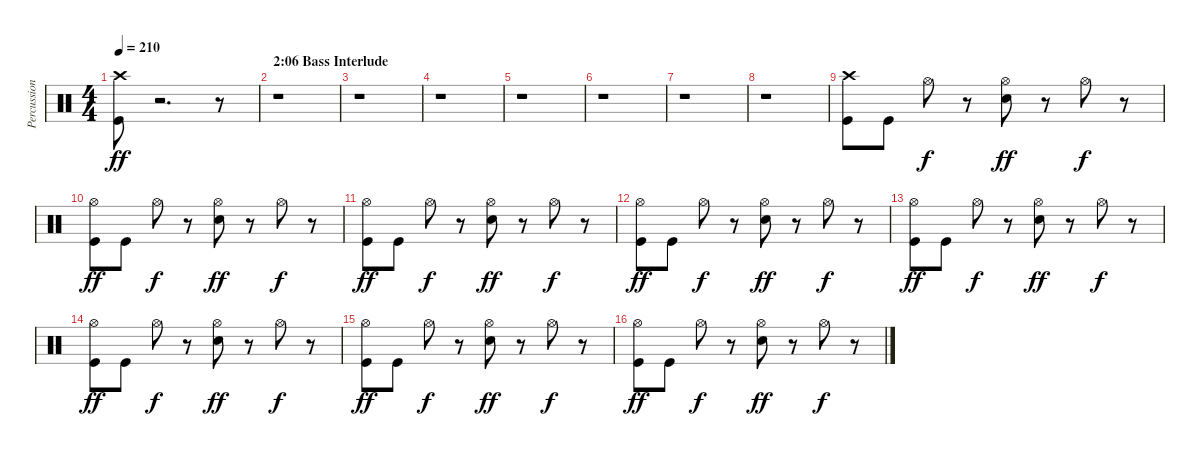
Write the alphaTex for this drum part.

\track ("Percussion" "Percussion") {instrument percussion}
\staff {score}
\articulation defaults
\ts (4 4)
\tempo 210
\clef neutral
\ks c
("Crash high (hit)" "Kick (hit)").8{dy ff} r.2{d} r.8 |
\section ("" "2:06 Bass Interlude")
r.1 |
r.1 |
r.1 |
r.1 |
r.1 |
r.1 |
r.1 |
("Crash high (hit)" "Kick (hit)").8 "Kick (hit)".8 "Hi-Hat (open)".8{dy f} r.8 ("Hi-Hat (open)" "Snare (hit) 2").8{dy ff} r.8 "Hi-Hat (open)".8{dy f} r.8 |
("Hi-Hat (open)" "Kick (hit)").8{dy ff} "Kick (hit)".8 "Hi-Hat (open)".8{dy f} r.8 ("Hi-Hat (open)" "Snare (hit) 2").8{dy ff} r.8 "Hi-Hat (open)".8{dy f} r.8 |
("Hi-Hat (open)" "Kick (hit)").8{dy ff} "Kick (hit)".8 "Hi-Hat (open)".8{dy f} r.8 ("Hi-Hat (open)" "Snare (hit) 2").8{dy ff} r.8 "Hi-Hat (open)".8{dy f} r.8 |
("Hi-Hat (open)" "Kick (hit)").8{dy ff} "Kick (hit)".8 "Hi-Hat (open)".8{dy f} r.8 ("Hi-Hat (open)" "Snare (hit) 2").8{dy ff} r.8 "Hi-Hat (open)".8{dy f} r.8 |
("Hi-Hat (open)" "Kick (hit)").8{dy ff} "Kick (hit)".8 "Hi-Hat (open)".8{dy f} r.8 ("Hi-Hat (open)" "Snare (hit) 2").8{dy ff} r.8 "Hi-Hat (open)".8{dy f} r.8 |
("Hi-Hat (open)" "Kick (hit)").8{dy ff} "Kick (hit)".8 "Hi-Hat (open)".8{dy f} r.8 ("Hi-Hat (open)" "Snare (hit) 2").8{dy ff} r.8 "Hi-Hat (open)".8{dy f} r.8 |
("Hi-Hat (open)" "Kick (hit)").8{dy ff} "Kick (hit)".8 "Hi-Hat (open)".8{dy f} r.8 ("Hi-Hat (open)" "Snare (hit) 2").8{dy ff} r.8 "Hi-Hat (open)".8{dy f} r.8 |
("Hi-Hat (open)" "Kick (hit)").8{dy ff} "Kick (hit)".8 "Hi-Hat (open)".8{dy f} r.8 ("Hi-Hat (open)" "Snare (hit) 2").8{dy ff} r.8 "Hi-Hat (open)".8{dy f} r.8
